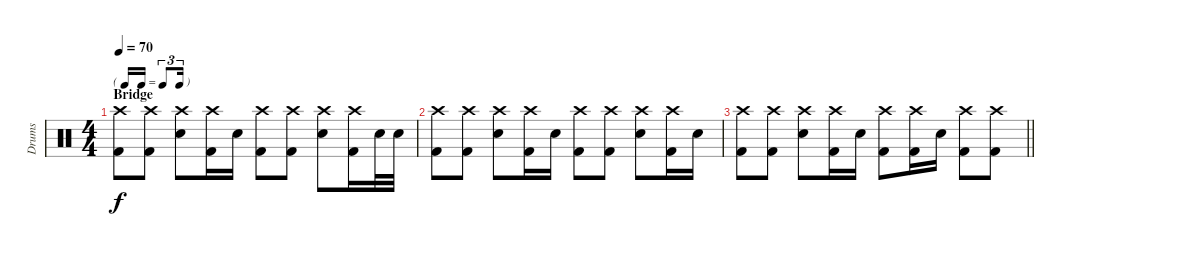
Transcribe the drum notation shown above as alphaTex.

\track ("Drums" "Drums") {instrument percussion}
\staff {score}
\articulation defaults
\ts (4 4)
\tf triplet16th
\section ("" "Bridge")
\tempo 70
\clef neutral
\ks c
("Crash high (hit)" "Kick (hit) 2").8{dy f} ("Crash high (hit)" "Kick (hit) 2").8 ("Crash high (hit)" "Snare (hit) 2").8 ("Crash high (hit)" "Kick (hit) 2").16 "Snare (hit) 2".16 ("Crash high (hit)" "Kick (hit) 2").8 ("Crash high (hit)" "Kick (hit) 2").8 ("Crash high (hit)" "Snare (hit) 2").8 ("Crash high (hit)" "Kick (hit) 2").16 "Snare (hit) 2".32 "Snare (hit) 2".32 |
("Crash high (hit)" "Kick (hit) 2").8 ("Crash high (hit)" "Kick (hit) 2").8 ("Crash high (hit)" "Snare (hit) 2").8 ("Crash high (hit)" "Kick (hit) 2").16 "Snare (hit) 2".16 ("Crash high (hit)" "Kick (hit) 2").8 ("Crash high (hit)" "Kick (hit) 2").8 ("Crash high (hit)" "Snare (hit) 2").8 ("Crash high (hit)" "Kick (hit) 2").16 "Snare (hit) 2".16 |
\barLineRight lightlight
("Crash high (hit)" "Kick (hit) 2").8 ("Crash high (hit)" "Kick (hit) 2").8 ("Crash high (hit)" "Snare (hit) 2").8 ("Crash high (hit)" "Kick (hit) 2").16 "Snare (hit) 2".16 ("Crash high (hit)" "Kick (hit) 2").8 ("Crash high (hit)" "Kick (hit) 2").16 "Snare (hit) 2".16 ("Crash high (hit)" "Kick (hit) 2").8 ("Crash high (hit)" "Kick (hit) 2").8
